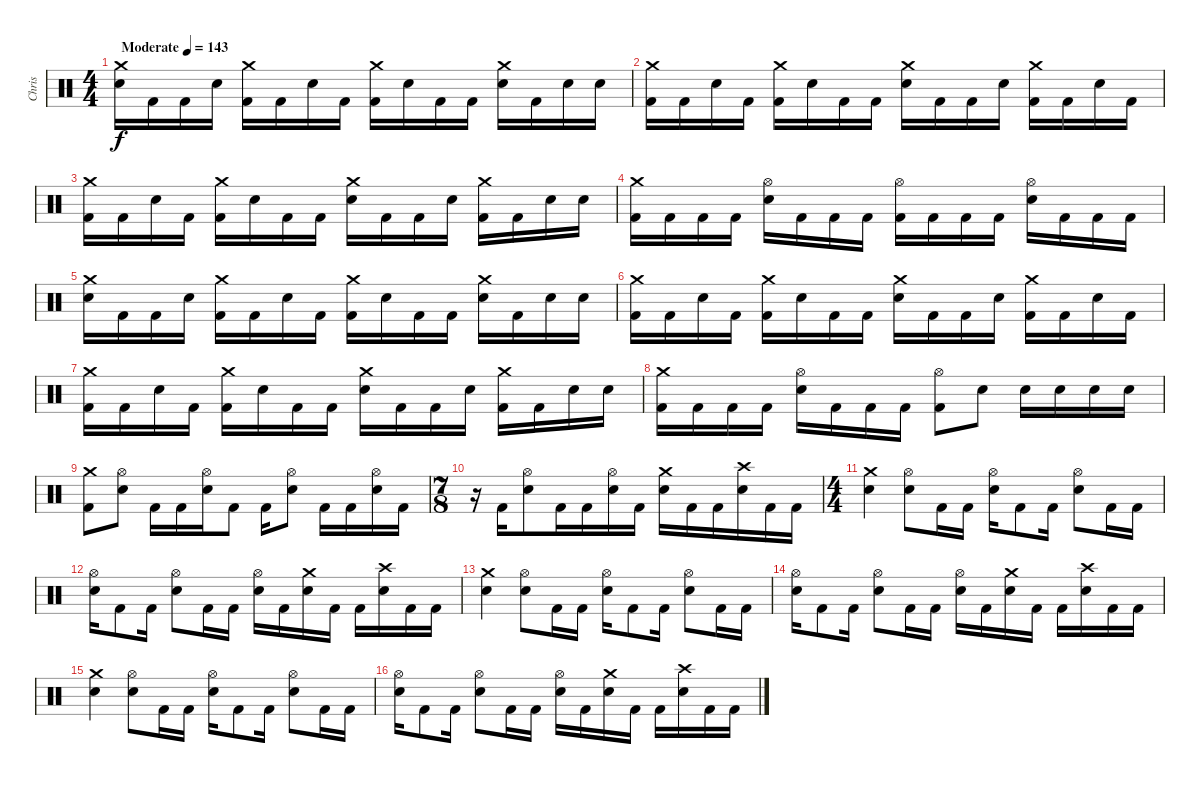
\track ("Chris" "Chris") {instrument percussion}
\staff {score}
\articulation defaults
\ts (4 4)
\tempo (143 "Moderate")
\clef neutral
\ks c
("Crash medium (hit)" "Electric Snare (hit)").16{dy f} "Kick (hit) 2".16 "Kick (hit) 2".16 "Electric Snare (hit)".16 ("Crash medium (hit)" "Kick (hit) 2").16 "Kick (hit) 2".16 "Electric Snare (hit)".16 "Kick (hit) 2".16 ("Crash medium (hit)" "Kick (hit) 2").16 "Electric Snare (hit)".16 "Kick (hit) 2".16 "Kick (hit) 2".16 ("Crash medium (hit)" "Electric Snare (hit)").16 "Kick (hit) 2".16 "Electric Snare (hit)".16 "Electric Snare (hit)".16 |
("Crash medium (hit)" "Kick (hit) 2").16 "Kick (hit) 2".16 "Electric Snare (hit)".16 "Kick (hit) 2".16 ("Crash medium (hit)" "Kick (hit) 2").16 "Electric Snare (hit)".16 "Kick (hit) 2".16 "Kick (hit) 2".16 ("Crash medium (hit)" "Electric Snare (hit)").16 "Kick (hit) 2".16 "Kick (hit) 2".16 "Electric Snare (hit)".16 ("Crash medium (hit)" "Kick (hit) 2").16 "Kick (hit) 2".16 "Electric Snare (hit)".16 "Kick (hit) 2".16 |
("Crash medium (hit)" "Kick (hit) 2").16 "Kick (hit) 2".16 "Electric Snare (hit)".16 "Kick (hit) 2".16 ("Crash medium (hit)" "Kick (hit) 2").16 "Electric Snare (hit)".16 "Kick (hit) 2".16 "Kick (hit) 2".16 ("Crash medium (hit)" "Electric Snare (hit)").16 "Kick (hit) 2".16 "Kick (hit) 2".16 "Electric Snare (hit)".16 ("Crash medium (hit)" "Kick (hit) 2").16 "Kick (hit) 2".16 "Electric Snare (hit)".16 "Electric Snare (hit)".16 |
("Crash medium (hit)" "Kick (hit) 2").16 "Kick (hit) 2".16 "Kick (hit) 2".16 "Kick (hit) 2".16 ("Hi-Hat (open)" "Electric Snare (hit)").16 "Kick (hit) 2".16 "Kick (hit) 2".16 "Kick (hit) 2".16 ("Hi-Hat (open)" "Kick (hit) 2").16 "Kick (hit) 2".16 "Kick (hit) 2".16 "Kick (hit) 2".16 ("Hi-Hat (open)" "Electric Snare (hit)").16 "Kick (hit) 2".16 "Kick (hit) 2".16 "Kick (hit) 2".16 |
("Crash medium (hit)" "Electric Snare (hit)").16 "Kick (hit) 2".16 "Kick (hit) 2".16 "Electric Snare (hit)".16 ("Crash medium (hit)" "Kick (hit) 2").16 "Kick (hit) 2".16 "Electric Snare (hit)".16 "Kick (hit) 2".16 ("Crash medium (hit)" "Kick (hit) 2").16 "Electric Snare (hit)".16 "Kick (hit) 2".16 "Kick (hit) 2".16 ("Crash medium (hit)" "Electric Snare (hit)").16 "Kick (hit) 2".16 "Electric Snare (hit)".16 "Electric Snare (hit)".16 |
("Crash medium (hit)" "Kick (hit) 2").16 "Kick (hit) 2".16 "Electric Snare (hit)".16 "Kick (hit) 2".16 ("Crash medium (hit)" "Kick (hit) 2").16 "Electric Snare (hit)".16 "Kick (hit) 2".16 "Kick (hit) 2".16 ("Crash medium (hit)" "Electric Snare (hit)").16 "Kick (hit) 2".16 "Kick (hit) 2".16 "Electric Snare (hit)".16 ("Crash medium (hit)" "Kick (hit) 2").16 "Kick (hit) 2".16 "Electric Snare (hit)".16 "Kick (hit) 2".16 |
("Crash medium (hit)" "Kick (hit) 2").16 "Kick (hit) 2".16 "Electric Snare (hit)".16 "Kick (hit) 2".16 ("Crash medium (hit)" "Kick (hit) 2").16 "Electric Snare (hit)".16 "Kick (hit) 2".16 "Kick (hit) 2".16 ("Crash medium (hit)" "Electric Snare (hit)").16 "Kick (hit) 2".16 "Kick (hit) 2".16 "Electric Snare (hit)".16 ("Crash medium (hit)" "Kick (hit) 2").16 "Kick (hit) 2".16 "Electric Snare (hit)".16 "Electric Snare (hit)".16 |
("Crash medium (hit)" "Kick (hit) 2").16 "Kick (hit) 2".16 "Kick (hit) 2".16 "Kick (hit) 2".16 ("Hi-Hat (open)" "Electric Snare (hit)").16 "Kick (hit) 2".16 "Kick (hit) 2".16 "Kick (hit) 2".16 ("Hi-Hat (open)" "Kick (hit) 2").8 "Electric Snare (hit)".8 "Electric Snare (hit)".16 "Electric Snare (hit)".16 "Electric Snare (hit)".16 "Electric Snare (hit)".16 |
("Crash medium (hit)" "Kick (hit) 2").8 ("Hi-Hat (open)" "Electric Snare (hit)").8 "Kick (hit) 2".16 "Kick (hit) 2".16 ("Hi-Hat (open)" "Electric Snare (hit)").16 "Kick (hit) 2".8 "Kick (hit) 2".16 ("Hi-Hat (open)" "Electric Snare (hit)").8 "Kick (hit) 2".16 "Kick (hit) 2".16 ("Hi-Hat (open)" "Electric Snare (hit)").16 "Kick (hit) 2".16 |
\ts (7 8)
r.16 "Kick (hit) 2".16 ("Hi-Hat (open)" "Electric Snare (hit)").8 "Kick (hit) 2".16 "Kick (hit) 2".16 ("Hi-Hat (open)" "Electric Snare (hit)").16 "Kick (hit) 2".16 ("Crash medium (hit)" "Electric Snare (hit)").16 "Kick (hit) 2".16 "Kick (hit) 2".16 ("Crash high (hit)" "Electric Snare (hit)").16 "Kick (hit) 2".16 "Kick (hit) 2".16 |
\ts (4 4)
("Crash medium (hit)" "Electric Snare (hit)").4 ("Hi-Hat (open)" "Electric Snare (hit)").8 "Kick (hit) 2".16 "Kick (hit) 2".16 ("Hi-Hat (open)" "Electric Snare (hit)").16 "Kick (hit) 2".8 "Kick (hit) 2".16 ("Hi-Hat (open)" "Electric Snare (hit)").8 "Kick (hit) 2".16 "Kick (hit) 2".16 |
("Hi-Hat (open)" "Electric Snare (hit)").16 "Kick (hit) 2".8 "Kick (hit) 2".16 ("Hi-Hat (open)" "Electric Snare (hit)").8 "Kick (hit) 2".16 "Kick (hit) 2".16 ("Hi-Hat (open)" "Electric Snare (hit)").16 "Kick (hit) 2".16 ("Crash medium (hit)" "Electric Snare (hit)").16 "Kick (hit) 2".16 "Kick (hit) 2".16 ("Crash high (hit)" "Electric Snare (hit)").16 "Kick (hit) 2".16 "Kick (hit) 2".16 |
("Crash medium (hit)" "Electric Snare (hit)").4 ("Hi-Hat (open)" "Electric Snare (hit)").8 "Kick (hit) 2".16 "Kick (hit) 2".16 ("Hi-Hat (open)" "Electric Snare (hit)").16 "Kick (hit) 2".8 "Kick (hit) 2".16 ("Hi-Hat (open)" "Electric Snare (hit)").8 "Kick (hit) 2".16 "Kick (hit) 2".16 |
("Hi-Hat (open)" "Electric Snare (hit)").16 "Kick (hit) 2".8 "Kick (hit) 2".16 ("Hi-Hat (open)" "Electric Snare (hit)").8 "Kick (hit) 2".16 "Kick (hit) 2".16 ("Hi-Hat (open)" "Electric Snare (hit)").16 "Kick (hit) 2".16 ("Crash medium (hit)" "Electric Snare (hit)").16 "Kick (hit) 2".16 "Kick (hit) 2".16 ("Crash high (hit)" "Electric Snare (hit)").16 "Kick (hit) 2".16 "Kick (hit) 2".16 |
("Crash medium (hit)" "Electric Snare (hit)").4 ("Hi-Hat (open)" "Electric Snare (hit)").8 "Kick (hit) 2".16 "Kick (hit) 2".16 ("Hi-Hat (open)" "Electric Snare (hit)").16 "Kick (hit) 2".8 "Kick (hit) 2".16 ("Hi-Hat (open)" "Electric Snare (hit)").8 "Kick (hit) 2".16 "Kick (hit) 2".16 |
("Hi-Hat (open)" "Electric Snare (hit)").16 "Kick (hit) 2".8 "Kick (hit) 2".16 ("Hi-Hat (open)" "Electric Snare (hit)").8 "Kick (hit) 2".16 "Kick (hit) 2".16 ("Hi-Hat (open)" "Electric Snare (hit)").16 "Kick (hit) 2".16 ("Crash medium (hit)" "Electric Snare (hit)").16 "Kick (hit) 2".16 "Kick (hit) 2".16 ("Crash high (hit)" "Electric Snare (hit)").16 "Kick (hit) 2".16 "Kick (hit) 2".16
